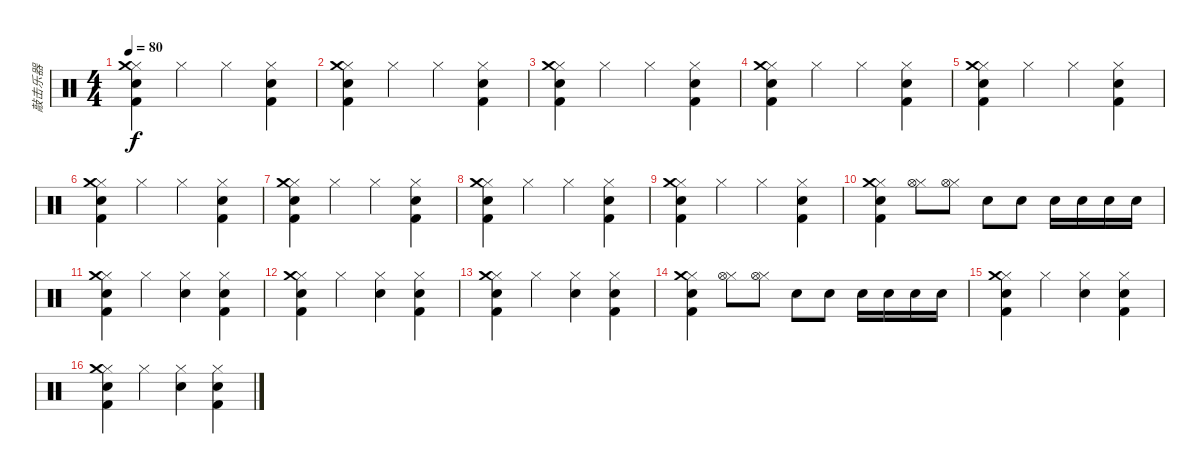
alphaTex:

\track ("敲击乐器" "敲击乐器") {instrument percussion}
\staff {score}
\articulation defaults
\ts (4 4)
\tempo 80
\clef neutral
\ks c
("Hi-Hat (closed)" "Snare (hit) 2" "Kick (hit) 2" "Crash medium (hit)").4{dy f} "Hi-Hat (closed)".4 "Hi-Hat (closed)".4 ("Hi-Hat (closed)" "Snare (hit) 2" "Kick (hit) 2").4 |
("Hi-Hat (closed)" "Snare (hit) 2" "Kick (hit) 2" "Crash medium (hit)").4 "Hi-Hat (closed)".4 "Hi-Hat (closed)".4 ("Hi-Hat (closed)" "Snare (hit) 2" "Kick (hit) 2").4 |
("Hi-Hat (closed)" "Snare (hit) 2" "Kick (hit) 2" "Crash medium (hit)").4 "Hi-Hat (closed)".4 "Hi-Hat (closed)".4 ("Hi-Hat (closed)" "Snare (hit) 2" "Kick (hit) 2").4 |
("Hi-Hat (closed)" "Snare (hit) 2" "Kick (hit) 2" "Crash medium (hit)").4 "Hi-Hat (closed)".4 "Hi-Hat (closed)".4 ("Hi-Hat (closed)" "Snare (hit) 2" "Kick (hit) 2").4 |
("Hi-Hat (closed)" "Snare (hit) 2" "Kick (hit) 2" "Crash medium (hit)").4 "Hi-Hat (closed)".4 "Hi-Hat (closed)".4 ("Hi-Hat (closed)" "Snare (hit) 2" "Kick (hit) 2").4 |
("Hi-Hat (closed)" "Snare (hit) 2" "Kick (hit) 2" "Crash medium (hit)").4 "Hi-Hat (closed)".4 "Hi-Hat (closed)".4 ("Hi-Hat (closed)" "Snare (hit) 2" "Kick (hit) 2").4 |
("Hi-Hat (closed)" "Snare (hit) 2" "Kick (hit) 2" "Crash medium (hit)").4 "Hi-Hat (closed)".4 "Hi-Hat (closed)".4 ("Hi-Hat (closed)" "Snare (hit) 2" "Kick (hit) 2").4 |
("Hi-Hat (closed)" "Snare (hit) 2" "Kick (hit) 2" "Crash medium (hit)").4 "Hi-Hat (closed)".4 "Hi-Hat (closed)".4 ("Hi-Hat (closed)" "Snare (hit) 2" "Kick (hit) 2").4 |
("Hi-Hat (closed)" "Snare (hit) 2" "Kick (hit) 2" "Crash medium (hit)").4 "Hi-Hat (closed)".4 "Hi-Hat (closed)".4 ("Hi-Hat (closed)" "Snare (hit) 2" "Kick (hit) 2").4 |
("Hi-Hat (closed)" "Snare (hit) 2" "Kick (hit) 2" "Crash medium (hit)").4 ("Hi-Hat (closed)" "Hi-Hat (open)").8 ("Hi-Hat (closed)" "Hi-Hat (open)").8 "Electric Snare (hit)".8 "Electric Snare (hit)".8 "Snare (hit) 2".16 "Snare (hit) 2".16 "Snare (hit) 2".16 "Snare (hit) 2".16 |
("Hi-Hat (closed)" "Snare (hit) 2" "Kick (hit) 2" "Crash medium (hit)").4 "Hi-Hat (closed)".4 ("Hi-Hat (closed)" "Hand Clap (hit)").4 ("Hi-Hat (closed)" "Snare (hit) 2" "Kick (hit) 2").4 |
("Hi-Hat (closed)" "Snare (hit) 2" "Kick (hit) 2" "Crash medium (hit)").4 "Hi-Hat (closed)".4 ("Hi-Hat (closed)" "Hand Clap (hit)").4 ("Hi-Hat (closed)" "Snare (hit) 2" "Kick (hit) 2").4 |
("Hi-Hat (closed)" "Snare (hit) 2" "Kick (hit) 2" "Crash medium (hit)").4 "Hi-Hat (closed)".4 ("Hi-Hat (closed)" "Hand Clap (hit)").4 ("Hi-Hat (closed)" "Snare (hit) 2" "Kick (hit) 2").4 |
("Hi-Hat (closed)" "Snare (hit) 2" "Kick (hit) 2" "Crash medium (hit)").4 ("Hi-Hat (closed)" "Hi-Hat (open)").8 ("Hi-Hat (closed)" "Hi-Hat (open)").8 "Electric Snare (hit)".8 "Electric Snare (hit)".8 "Snare (hit) 2".16 "Snare (hit) 2".16 "Snare (hit) 2".16 "Snare (hit) 2".16 |
("Hi-Hat (closed)" "Snare (hit) 2" "Kick (hit) 2" "Crash medium (hit)").4 "Hi-Hat (closed)".4 ("Hi-Hat (closed)" "Hand Clap (hit)").4 ("Hi-Hat (closed)" "Snare (hit) 2" "Kick (hit) 2").4 |
("Hi-Hat (closed)" "Snare (hit) 2" "Kick (hit) 2" "Crash medium (hit)").4 "Hi-Hat (closed)".4 ("Hi-Hat (closed)" "Hand Clap (hit)").4 ("Hi-Hat (closed)" "Snare (hit) 2" "Kick (hit) 2").4
